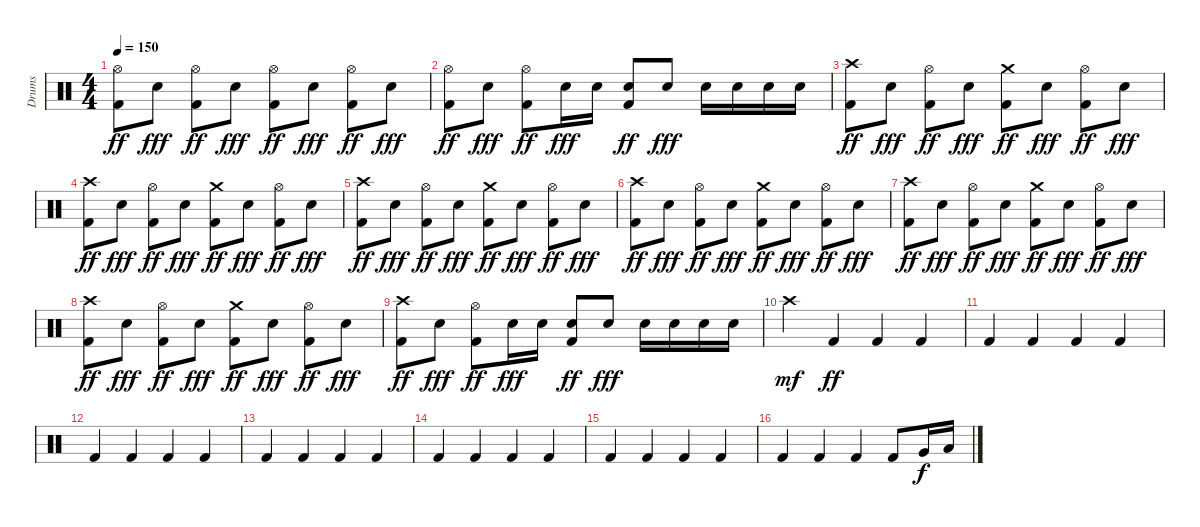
\track ("Drums" "Drums") {instrument percussion}
\staff {score}
\articulation defaults
\ts (4 4)
\tempo 150
\clef neutral
\ks c
("Hi-Hat (open)" "Kick (hit) 2").8{dy ff} "Snare (hit) 2".8{dy fff} ("Hi-Hat (open)" "Kick (hit) 2").8{dy ff} "Snare (hit) 2".8{dy fff} ("Hi-Hat (open)" "Kick (hit) 2").8{dy ff} "Snare (hit) 2".8{dy fff} ("Hi-Hat (open)" "Kick (hit) 2").8{dy ff} "Snare (hit) 2".8{dy fff} |
("Hi-Hat (open)" "Kick (hit) 2").8{dy ff} "Snare (hit) 2".8{dy fff} ("Hi-Hat (open)" "Kick (hit) 2").8{dy ff} "Snare (hit) 2".16{dy fff} "Snare (hit) 2".16 ("Snare (hit) 2" "Kick (hit) 2").8{dy ff} "Snare (hit) 2".8{dy fff} "Snare (hit) 2".16 "Snare (hit) 2".16 "Snare (hit) 2".16 "Snare (hit) 2".16 |
("Crash high (hit)" "Kick (hit) 2").8{dy ff} "Snare (hit) 2".8{dy fff} ("Hi-Hat (open)" "Kick (hit) 2").8{dy ff} "Snare (hit) 2".8{dy fff} ("Crash medium (hit)" "Kick (hit) 2").8{dy ff} "Snare (hit) 2".8{dy fff} ("Hi-Hat (open)" "Kick (hit) 2").8{dy ff} "Snare (hit) 2".8{dy fff} |
("Crash high (hit)" "Kick (hit) 2").8{dy ff} "Snare (hit) 2".8{dy fff} ("Hi-Hat (open)" "Kick (hit) 2").8{dy ff} "Snare (hit) 2".8{dy fff} ("Crash medium (hit)" "Kick (hit) 2").8{dy ff} "Snare (hit) 2".8{dy fff} ("Hi-Hat (open)" "Kick (hit) 2").8{dy ff} "Snare (hit) 2".8{dy fff} |
("Crash high (hit)" "Kick (hit) 2").8{dy ff} "Snare (hit) 2".8{dy fff} ("Hi-Hat (open)" "Kick (hit) 2").8{dy ff} "Snare (hit) 2".8{dy fff} ("Crash medium (hit)" "Kick (hit) 2").8{dy ff} "Snare (hit) 2".8{dy fff} ("Hi-Hat (open)" "Kick (hit) 2").8{dy ff} "Snare (hit) 2".8{dy fff} |
("Crash high (hit)" "Kick (hit) 2").8{dy ff} "Snare (hit) 2".8{dy fff} ("Hi-Hat (open)" "Kick (hit) 2").8{dy ff} "Snare (hit) 2".8{dy fff} ("Crash medium (hit)" "Kick (hit) 2").8{dy ff} "Snare (hit) 2".8{dy fff} ("Hi-Hat (open)" "Kick (hit) 2").8{dy ff} "Snare (hit) 2".8{dy fff} |
("Crash high (hit)" "Kick (hit) 2").8{dy ff} "Snare (hit) 2".8{dy fff} ("Hi-Hat (open)" "Kick (hit) 2").8{dy ff} "Snare (hit) 2".8{dy fff} ("Crash medium (hit)" "Kick (hit) 2").8{dy ff} "Snare (hit) 2".8{dy fff} ("Hi-Hat (open)" "Kick (hit) 2").8{dy ff} "Snare (hit) 2".8{dy fff} |
("Crash high (hit)" "Kick (hit) 2").8{dy ff} "Snare (hit) 2".8{dy fff} ("Hi-Hat (open)" "Kick (hit) 2").8{dy ff} "Snare (hit) 2".8{dy fff} ("Crash medium (hit)" "Kick (hit) 2").8{dy ff} "Snare (hit) 2".8{dy fff} ("Hi-Hat (open)" "Kick (hit) 2").8{dy ff} "Snare (hit) 2".8{dy fff} |
("Crash high (hit)" "Kick (hit) 2").8{dy ff} "Snare (hit) 2".8{dy fff} ("Hi-Hat (open)" "Kick (hit) 2").8{dy ff} "Snare (hit) 2".16{dy fff} "Snare (hit) 2".16 ("Snare (hit) 2" "Kick (hit) 2").8{dy ff} "Snare (hit) 2".8{dy fff} "Snare (hit) 2".16 "Snare (hit) 2".16 "Snare (hit) 2".16 "Snare (hit) 2".16 |
"Crash high (hit)".4{dy mf} "Kick (hit) 2".4{dy ff} "Kick (hit) 2".4 "Kick (hit) 2".4 |
"Kick (hit) 2".4 "Kick (hit) 2".4 "Kick (hit) 2".4 "Kick (hit) 2".4 |
"Kick (hit) 2".4 "Kick (hit) 2".4 "Kick (hit) 2".4 "Kick (hit) 2".4 |
"Kick (hit) 2".4 "Kick (hit) 2".4 "Kick (hit) 2".4 "Kick (hit) 2".4 |
"Kick (hit) 2".4 "Kick (hit) 2".4 "Kick (hit) 2".4 "Kick (hit) 2".4 |
"Kick (hit) 2".4 "Kick (hit) 2".4 "Kick (hit) 2".4 "Kick (hit) 2".4 |
"Kick (hit) 2".4 "Kick (hit) 2".4 "Kick (hit) 2".4 "Kick (hit) 2".8 "Very Low Tom (hit)".16{dy f} "Low Tom (hit)".16
